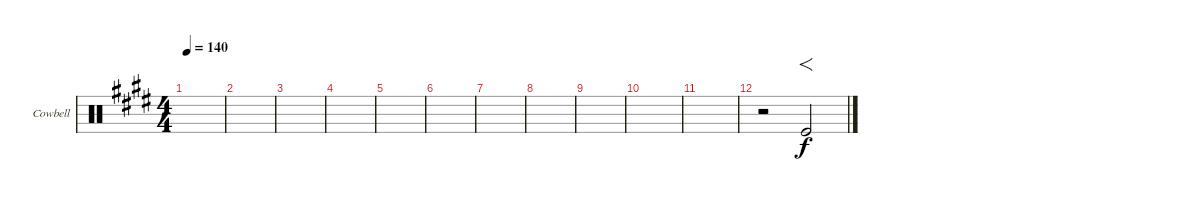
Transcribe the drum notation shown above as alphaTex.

\defaultSystemsLayout 4
\bracketExtendMode groupsimilarinstruments
\firstSystemTrackNameOrientation horizontal
\otherSystemsTrackNameOrientation horizontal
\track ("Cowbell" "Cowbell") {instrument percussion}
\staff {score}
\articulation defaults
\ts (4 4)
\tempo 140
\clef neutral
\scale
0.333333
\ks e
|
\scale
0.333333 |
\scale
0.333333 |
\scale
0.333333 |
|
|
|
|
|
|
|
r.2 "Kick (hit)".2{f}
